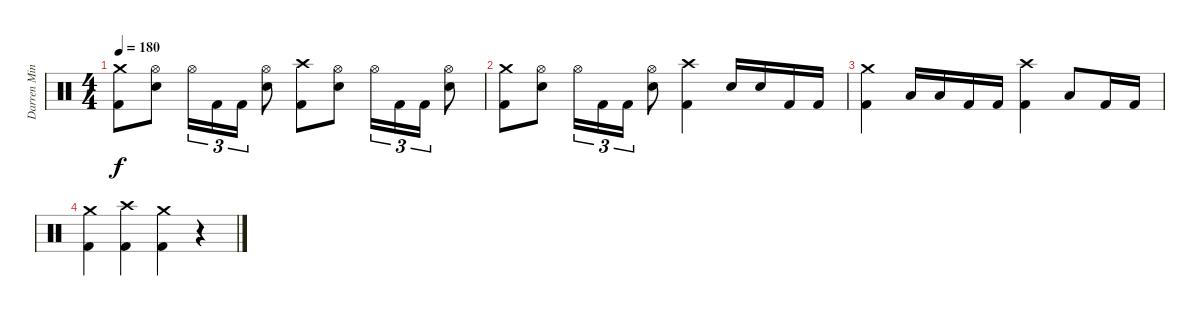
\track ("Darren Minter" "Darren Min") {instrument percussion}
\staff {score}
\articulation defaults
\ts (4 4)
\tempo 180
\clef neutral
\ks c
("Crash medium (hit)" "Kick (hit) 2").8{dy f} ("Hi-Hat (open)" "Electric Snare (hit)").8 "Hi-Hat (open)".16{tu (3 2)} "Kick (hit) 2".16{tu (3 2)} "Kick (hit) 2".16{tu (3 2)} ("Hi-Hat (open)" "Electric Snare (hit)").8 ("Crash high (hit)" "Kick (hit) 2").8 ("Hi-Hat (open)" "Electric Snare (hit)").8 "Hi-Hat (open)".16{tu (3 2)} "Kick (hit) 2".16{tu (3 2)} "Kick (hit) 2".16{tu (3 2)} ("Hi-Hat (open)" "Electric Snare (hit)").8 |
("Crash medium (hit)" "Kick (hit) 2").8 ("Hi-Hat (open)" "Electric Snare (hit)").8 "Hi-Hat (open)".16{tu (3 2)} "Kick (hit) 2".16{tu (3 2)} "Kick (hit) 2".16{tu (3 2)} ("Hi-Hat (open)" "Electric Snare (hit)").8 ("Crash high (hit)" "Kick (hit) 2").4 "Electric Snare (hit)".16 "Electric Snare (hit)".16 "Kick (hit) 2".16 "Kick (hit) 2".16 |
("Crash medium (hit)" "Kick (hit) 2").4 "Low Tom (hit)".16 "Low Tom (hit)".16 "Kick (hit) 2".16 "Kick (hit) 2".16 ("Crash high (hit)" "Kick (hit) 2").4 "Low Floor Tom (hit)".8 "Kick (hit) 2".16 "Kick (hit) 2".16 |
("Crash medium (hit)" "Kick (hit) 2").4 ("Crash high (hit)" "Kick (hit) 2").4 ("Crash medium (hit)" "Kick (hit) 2").4 r.4
